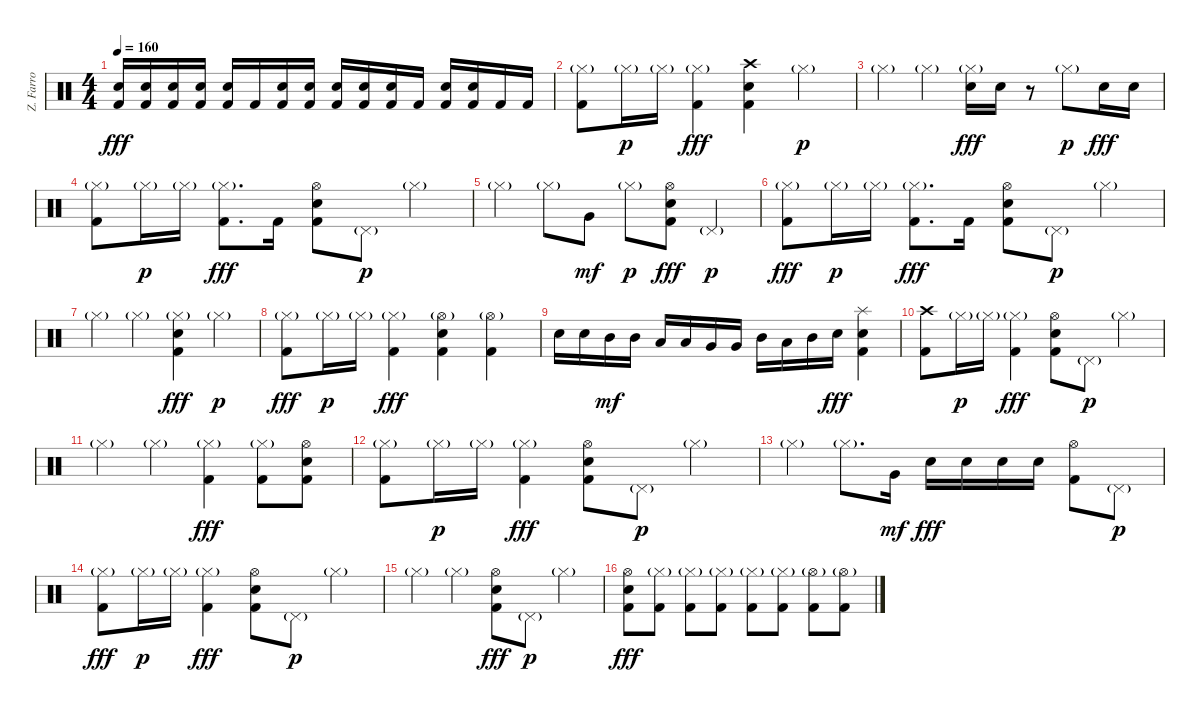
\track ("Z. Farro" "Z. Farro") {instrument percussion}
\staff {score}
\articulation defaults
\ts (4 4)
\tempo 160
\clef neutral
\ks c
("Electric Snare (hit)" "Kick (hit) 2").16{dy fff} ("Electric Snare (hit)" "Kick (hit) 2").16 ("Electric Snare (hit)" "Kick (hit) 2").16 ("Electric Snare (hit)" "Kick (hit) 2").16 ("Electric Snare (hit)" "Kick (hit) 2").16 "Kick (hit) 2".16 ("Electric Snare (hit)" "Kick (hit) 2").16 ("Electric Snare (hit)" "Kick (hit) 2").16 ("Electric Snare (hit)" "Kick (hit) 2").16 ("Electric Snare (hit)" "Kick (hit) 2").16 ("Electric Snare (hit)" "Kick (hit) 2").16 "Kick (hit) 2".16 ("Electric Snare (hit)" "Kick (hit) 2").16 ("Electric Snare (hit)" "Kick (hit) 2").16 "Kick (hit) 2".16 "Kick (hit) 2".16 |
("Hi-Hat (closed)"{g} "Kick (hit) 2").8 "Hi-Hat (closed)"{g}.16{dy p} "Hi-Hat (closed)"{g}.16 ("Hi-Hat (closed)"{g} "Kick (hit) 2").4{dy fff} ("Crash high (hit)" "Electric Snare (hit)" "Kick (hit) 2").4 "Hi-Hat (closed)"{g}.4{dy p} |
"Hi-Hat (closed)"{g}.4 "Hi-Hat (closed)"{g}.4 ("Hi-Hat (closed)"{g} "Electric Snare (hit)").16{dy fff} "Electric Snare (hit)".16 r.8 "Hi-Hat (closed)"{g}.8{dy p} "Electric Snare (hit)".16{dy fff} "Electric Snare (hit)".16 |
("Hi-Hat (closed)"{g} "Kick (hit) 2").8 "Hi-Hat (closed)"{g}.16{dy p} "Hi-Hat (closed)"{g}.16 ("Hi-Hat (closed)"{g} "Kick (hit) 2").8{d dy fff} "Kick (hit) 2".16 ("Hi-Hat (open)" "Electric Snare (hit)" "Kick (hit) 2").8 "Pedal Hi-Hat (hit)"{g}.8{dy p} "Hi-Hat (closed)"{g}.4 |
"Hi-Hat (closed)"{g}.4 "Hi-Hat (closed)"{g}.8 "Very Low Tom (hit)".8{dy mf balance 16} "Hi-Hat (closed)"{g}.8{dy p balance 8} ("Hi-Hat (open)" "Electric Snare (hit)" "Kick (hit) 2").8{dy fff} "Pedal Hi-Hat (hit)"{g}.4{dy p} |
("Hi-Hat (closed)"{g} "Kick (hit) 2").8{dy fff} "Hi-Hat (closed)"{g}.16{dy p} "Hi-Hat (closed)"{g}.16 ("Hi-Hat (closed)"{g} "Kick (hit) 2").8{d dy fff} "Kick (hit) 2".16 ("Hi-Hat (open)" "Electric Snare (hit)" "Kick (hit) 2").8 "Pedal Hi-Hat (hit)"{g}.8{dy p} "Hi-Hat (closed)"{g}.4 |
"Hi-Hat (closed)"{g}.4 "Hi-Hat (closed)"{g}.4 ("Hi-Hat (closed)"{g} "Electric Snare (hit)" "Kick (hit) 2").4{dy fff} "Hi-Hat (closed)"{g}.4{dy p} |
("Hi-Hat (closed)"{g} "Kick (hit) 2").8{dy fff} "Hi-Hat (closed)"{g}.16{dy p} "Hi-Hat (closed)"{g}.16 ("Hi-Hat (closed)"{g} "Kick (hit) 2").4{dy fff} ("Hi-Hat (open)"{g} "Electric Snare (hit)" "Kick (hit) 2").4 ("Hi-Hat (open)"{g} "Kick (hit) 2").4 |
"Electric Snare (hit)".16 "Electric Snare (hit)".16 "Mid Tom (hit)".16{dy mf} "Mid Tom (hit)".16 "Low Tom (hit)".16 "Low Tom (hit)".16 "Very Low Tom (hit)".16 "Very Low Tom (hit)".16 "Mid Tom (hit)".16 "Low Tom (hit)".16 "Mid Tom (hit)".16 "Electric Snare (hit)".16{dy fff} ("Splash (hit)" "Electric Snare (hit)" "Kick (hit) 2").4 |
("Crash high (hit)" "Kick (hit) 2").8 "Hi-Hat (closed)"{g}.16{dy p} "Hi-Hat (closed)"{g}.16 ("Hi-Hat (closed)"{g} "Kick (hit) 2").4{dy fff} ("Hi-Hat (open)" "Electric Snare (hit)" "Kick (hit) 2").8 "Pedal Hi-Hat (hit)"{g}.8{dy p} "Hi-Hat (closed)"{g}.4 |
"Hi-Hat (closed)"{g}.4 "Hi-Hat (closed)"{g}.4 ("Hi-Hat (closed)"{g} "Kick (hit) 2").4{dy fff} ("Hi-Hat (closed)"{g} "Kick (hit) 2").8 ("Hi-Hat (open)" "Electric Snare (hit)" "Kick (hit) 2").8 |
("Hi-Hat (closed)"{g} "Kick (hit) 2").8 "Hi-Hat (closed)"{g}.16{dy p} "Hi-Hat (closed)"{g}.16 ("Hi-Hat (closed)"{g} "Kick (hit) 2").4{dy fff} ("Hi-Hat (open)" "Electric Snare (hit)" "Kick (hit) 2").8 "Pedal Hi-Hat (hit)"{g}.8{dy p} "Hi-Hat (closed)"{g}.4 |
"Hi-Hat (closed)"{g}.4 "Hi-Hat (closed)"{g}.8{d} "Very Low Tom (hit)".16{dy mf balance 16} "Electric Snare (hit)".16{dy fff balance 8} "Electric Snare (hit)".16 "Electric Snare (hit)".16 "Electric Snare (hit)".16 ("Hi-Hat (open)" "Kick (hit) 2").8 "Pedal Hi-Hat (hit)"{g}.8{dy p} |
("Hi-Hat (closed)"{g} "Kick (hit) 2").8{dy fff} "Hi-Hat (closed)"{g}.16{dy p} "Hi-Hat (closed)"{g}.16 ("Hi-Hat (closed)"{g} "Kick (hit) 2").4{dy fff} ("Hi-Hat (open)" "Electric Snare (hit)" "Kick (hit) 2").8 "Pedal Hi-Hat (hit)"{g}.8{dy p} "Hi-Hat (closed)"{g}.4 |
"Hi-Hat (closed)"{g}.4 "Hi-Hat (closed)"{g}.4 ("Hi-Hat (open)" "Electric Snare (hit)" "Kick (hit) 2").8{dy fff} "Pedal Hi-Hat (hit)"{g}.8{dy p} "Hi-Hat (closed)"{g}.4 |
("Hi-Hat (open)" "Electric Snare (hit)" "Kick (hit) 2").8{dy fff} ("Hi-Hat (closed)"{g} "Kick (hit) 2").8 ("Hi-Hat (closed)"{g} "Kick (hit) 2").8 ("Hi-Hat (closed)"{g} "Kick (hit) 2").8 ("Hi-Hat (closed)"{g} "Kick (hit) 2").8 ("Hi-Hat (closed)"{g} "Kick (hit) 2").8 ("Hi-Hat (open)"{g} "Kick (hit) 2").8 ("Hi-Hat (open)"{g} "Kick (hit) 2").8
